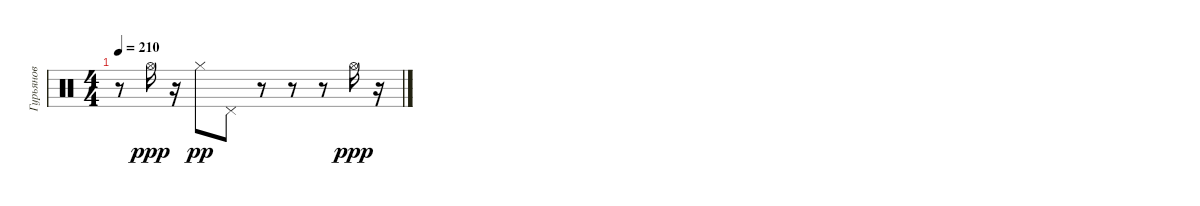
\track ("Гурьянов" "Гурьянов") {instrument percussion}
\staff {score}
\articulation defaults
\ts (4 4)
\tempo 210
\clef neutral
\ks c
r.8{dy pp} "Hi-Hat (open)".16{dy ppp} r.16 "Hi-Hat (closed)".8{dy pp} "Pedal Hi-Hat (hit)".8 r.8 r.8 r.8 "Hi-Hat (open)".16{dy ppp} r.16
